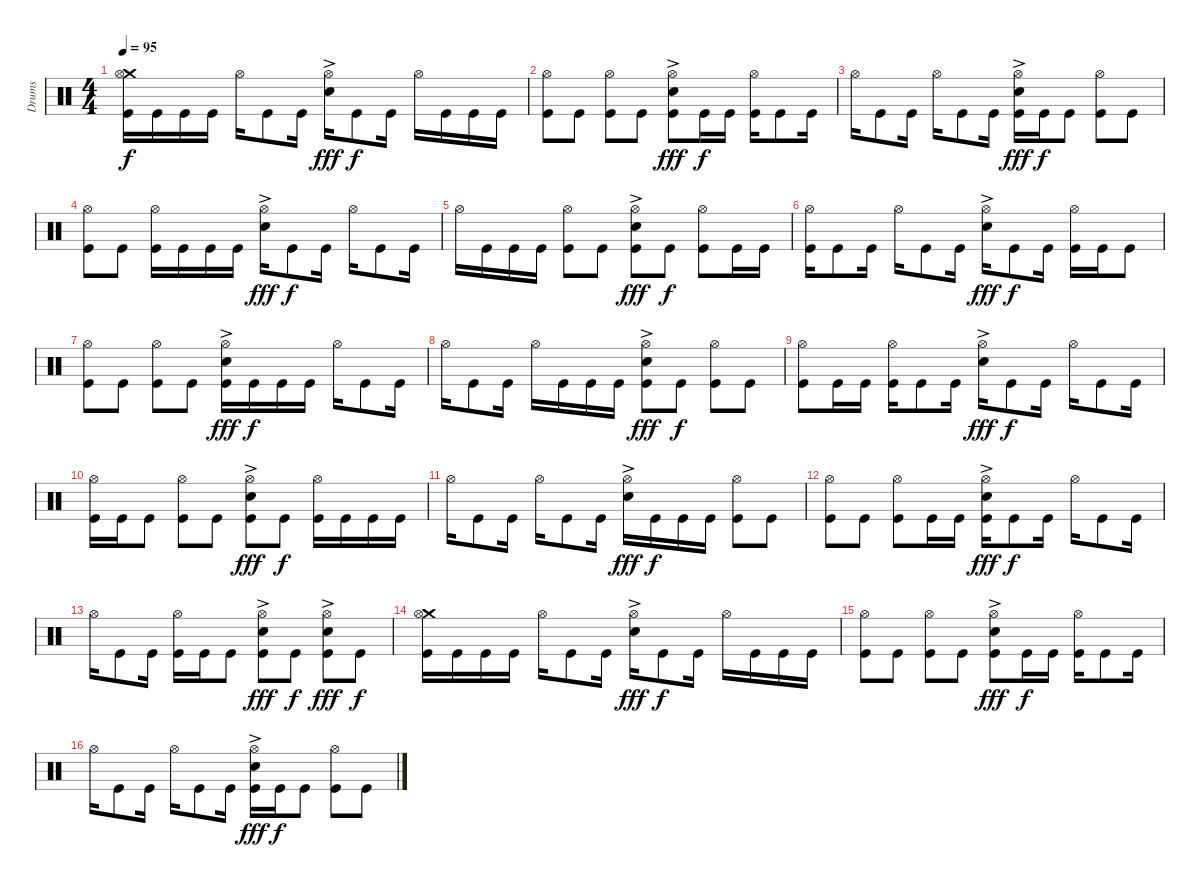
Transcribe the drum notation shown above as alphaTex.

\track ("Drums" "Drums") {instrument percussion}
\staff {score}
\articulation defaults
\ts (4 4)
\tempo 95
\clef neutral
\ks c
("Crash medium (hit)" "Hi-Hat (open)" "Kick (hit)").16{dy f} "Kick (hit)".16 "Kick (hit)".16 "Kick (hit)".16 "Hi-Hat (open)".16 "Kick (hit)".8 "Kick (hit)".16 ("Hi-Hat (open)" "Snare (hit) 2"{ac}).16{dy fff} "Kick (hit)".8{dy f} "Kick (hit)".16 "Hi-Hat (open)".16 "Kick (hit)".16 "Kick (hit)".16 "Kick (hit)".16 |
("Hi-Hat (open)" "Kick (hit)").8 "Kick (hit)".8 ("Hi-Hat (open)" "Kick (hit)").8 "Kick (hit)".8 ("Hi-Hat (open)" "Snare (hit) 2"{ac} "Kick (hit)").8{dy fff} "Kick (hit)".16{dy f} "Kick (hit)".16 ("Hi-Hat (open)" "Kick (hit)").16 "Kick (hit)".8 "Kick (hit)".16 |
"Hi-Hat (open)".16 "Kick (hit)".8 "Kick (hit)".16 "Hi-Hat (open)".16 "Kick (hit)".8 "Kick (hit)".16 ("Hi-Hat (open)" "Snare (hit) 2"{ac} "Kick (hit)").16{dy fff} "Kick (hit)".16{dy f} "Kick (hit)".8 ("Hi-Hat (open)" "Kick (hit)").8 "Kick (hit)".8 |
("Hi-Hat (open)" "Kick (hit)").8 "Kick (hit)".8 ("Hi-Hat (open)" "Kick (hit)").16 "Kick (hit)".16 "Kick (hit)".16 "Kick (hit)".16 ("Hi-Hat (open)" "Snare (hit) 2"{ac}).16{dy fff} "Kick (hit)".8{dy f} "Kick (hit)".16 "Hi-Hat (open)".16 "Kick (hit)".8 "Kick (hit)".16 |
"Hi-Hat (open)".16 "Kick (hit)".16 "Kick (hit)".16 "Kick (hit)".16 ("Hi-Hat (open)" "Kick (hit)").8 "Kick (hit)".8 ("Hi-Hat (open)" "Snare (hit) 2"{ac} "Kick (hit)").8{dy fff} "Kick (hit)".8{dy f} ("Hi-Hat (open)" "Kick (hit)").8 "Kick (hit)".16 "Kick (hit)".16 |
("Hi-Hat (open)" "Kick (hit)").16 "Kick (hit)".8 "Kick (hit)".16 "Hi-Hat (open)".16 "Kick (hit)".8 "Kick (hit)".16 ("Hi-Hat (open)" "Snare (hit) 2"{ac}).16{dy fff} "Kick (hit)".8{dy f} "Kick (hit)".16 ("Hi-Hat (open)" "Kick (hit)").16 "Kick (hit)".16 "Kick (hit)".8 |
("Hi-Hat (open)" "Kick (hit)").8 "Kick (hit)".8 ("Hi-Hat (open)" "Kick (hit)").8 "Kick (hit)".8 ("Hi-Hat (open)" "Snare (hit) 2"{ac} "Kick (hit)").16{dy fff} "Kick (hit)".16{dy f} "Kick (hit)".16 "Kick (hit)".16 "Hi-Hat (open)".16 "Kick (hit)".8 "Kick (hit)".16 |
"Hi-Hat (open)".16 "Kick (hit)".8 "Kick (hit)".16 "Hi-Hat (open)".16 "Kick (hit)".16 "Kick (hit)".16 "Kick (hit)".16 ("Hi-Hat (open)" "Snare (hit) 2"{ac} "Kick (hit)").8{dy fff} "Kick (hit)".8{dy f} ("Hi-Hat (open)" "Kick (hit)").8 "Kick (hit)".8 |
("Hi-Hat (open)" "Kick (hit)").8 "Kick (hit)".16 "Kick (hit)".16 ("Hi-Hat (open)" "Kick (hit)").16 "Kick (hit)".8 "Kick (hit)".16 ("Hi-Hat (open)" "Snare (hit) 2"{ac}).16{dy fff} "Kick (hit)".8{dy f} "Kick (hit)".16 "Hi-Hat (open)".16 "Kick (hit)".8 "Kick (hit)".16 |
("Hi-Hat (open)" "Kick (hit)").16 "Kick (hit)".16 "Kick (hit)".8 ("Hi-Hat (open)" "Kick (hit)").8 "Kick (hit)".8 ("Hi-Hat (open)" "Snare (hit) 2"{ac} "Kick (hit)").8{dy fff} "Kick (hit)".8{dy f} ("Hi-Hat (open)" "Kick (hit)").16 "Kick (hit)".16 "Kick (hit)".16 "Kick (hit)".16 |
"Hi-Hat (open)".16 "Kick (hit)".8 "Kick (hit)".16 "Hi-Hat (open)".16 "Kick (hit)".8 "Kick (hit)".16 ("Hi-Hat (open)" "Snare (hit) 2"{ac}).16{dy fff} "Kick (hit)".16{dy f} "Kick (hit)".16 "Kick (hit)".16 ("Hi-Hat (open)" "Kick (hit)").8 "Kick (hit)".8 |
("Hi-Hat (open)" "Kick (hit)").8 "Kick (hit)".8 ("Hi-Hat (open)" "Kick (hit)").8 "Kick (hit)".16 "Kick (hit)".16 ("Hi-Hat (open)" "Snare (hit) 2"{ac} "Kick (hit)").16{dy fff} "Kick (hit)".8{dy f} "Kick (hit)".16 "Hi-Hat (open)".16 "Kick (hit)".8 "Kick (hit)".16 |
"Hi-Hat (open)".16 "Kick (hit)".8 "Kick (hit)".16 ("Hi-Hat (open)" "Kick (hit)").16 "Kick (hit)".16 "Kick (hit)".8 ("Hi-Hat (open)" "Snare (hit) 2"{ac} "Kick (hit)").8{dy fff} "Kick (hit)".8{dy f} ("Hi-Hat (open)" "Snare (hit) 2"{ac} "Kick (hit)").8{dy fff} "Kick (hit)".8{dy f} |
("Crash medium (hit)" "Hi-Hat (open)" "Kick (hit)").16 "Kick (hit)".16 "Kick (hit)".16 "Kick (hit)".16 "Hi-Hat (open)".16 "Kick (hit)".8 "Kick (hit)".16 ("Hi-Hat (open)" "Snare (hit) 2"{ac}).16{dy fff} "Kick (hit)".8{dy f} "Kick (hit)".16 "Hi-Hat (open)".16 "Kick (hit)".16 "Kick (hit)".16 "Kick (hit)".16 |
("Hi-Hat (open)" "Kick (hit)").8 "Kick (hit)".8 ("Hi-Hat (open)" "Kick (hit)").8 "Kick (hit)".8 ("Hi-Hat (open)" "Snare (hit) 2"{ac} "Kick (hit)").8{dy fff} "Kick (hit)".16{dy f} "Kick (hit)".16 ("Hi-Hat (open)" "Kick (hit)").16 "Kick (hit)".8 "Kick (hit)".16 |
"Hi-Hat (open)".16 "Kick (hit)".8 "Kick (hit)".16 "Hi-Hat (open)".16 "Kick (hit)".8 "Kick (hit)".16 ("Hi-Hat (open)" "Snare (hit) 2"{ac} "Kick (hit)").16{dy fff} "Kick (hit)".16{dy f} "Kick (hit)".8 ("Hi-Hat (open)" "Kick (hit)").8 "Kick (hit)".8
